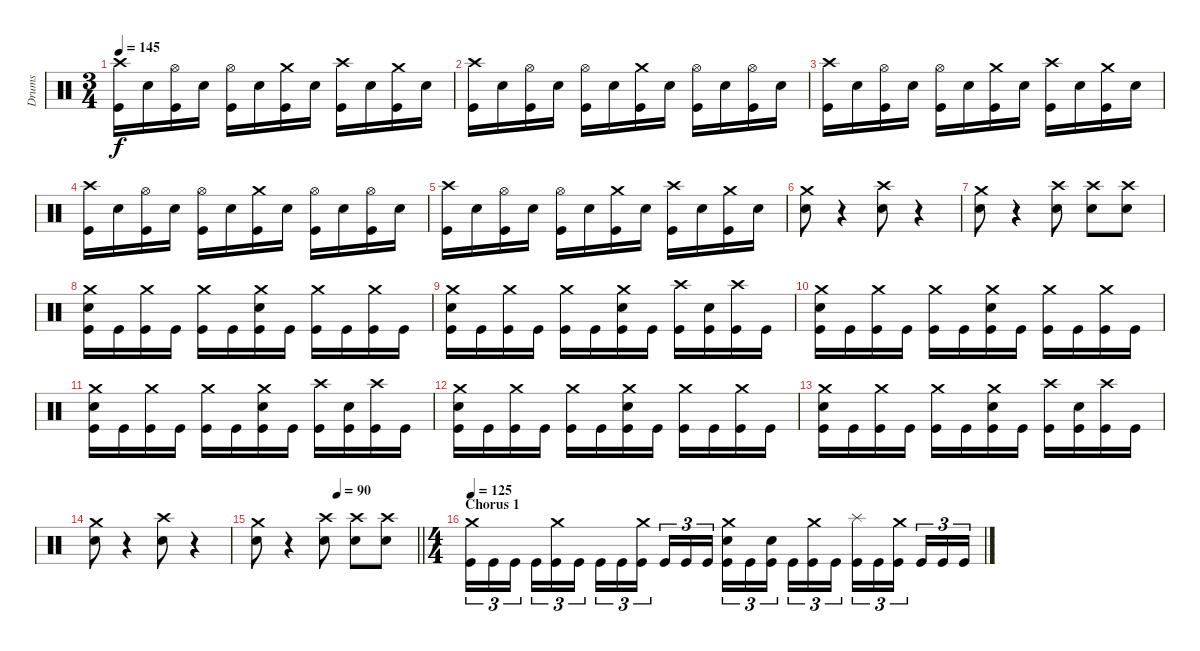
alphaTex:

\track ("Drums" "Drums") {instrument percussion}
\staff {score}
\articulation defaults
\ts (3 4)
\tempo 145
\clef neutral
\ks c
("Crash high (hit)" "Kick (hit)").16{dy f} "Snare (hit) 2".16 ("Hi-Hat (open)" "Kick (hit)").16 "Snare (hit) 2".16 ("Hi-Hat (open)" "Kick (hit)").16 "Snare (hit) 2".16 ("Crash medium (hit)" "Kick (hit)").16 "Snare (hit) 2".16 ("Crash high (hit)" "Kick (hit)").16 "Snare (hit) 2".16 ("Crash medium (hit)" "Kick (hit)").16 "Snare (hit) 2".16 |
("Crash high (hit)" "Kick (hit)").16 "Snare (hit) 2".16 ("Hi-Hat (open)" "Kick (hit)").16 "Snare (hit) 2".16 ("Hi-Hat (open)" "Kick (hit)").16 "Snare (hit) 2".16 ("Crash medium (hit)" "Kick (hit)").16 "Snare (hit) 2".16 ("Hi-Hat (open)" "Kick (hit)").16 "Snare (hit) 2".16 ("Hi-Hat (open)" "Kick (hit)").16 "Snare (hit) 2".16 |
("Crash high (hit)" "Kick (hit)").16 "Snare (hit) 2".16 ("Hi-Hat (open)" "Kick (hit)").16 "Snare (hit) 2".16 ("Hi-Hat (open)" "Kick (hit)").16 "Snare (hit) 2".16 ("Crash medium (hit)" "Kick (hit)").16 "Snare (hit) 2".16 ("Crash high (hit)" "Kick (hit)").16 "Snare (hit) 2".16 ("Crash medium (hit)" "Kick (hit)").16 "Snare (hit) 2".16 |
("Crash high (hit)" "Kick (hit)").16 "Snare (hit) 2".16 ("Hi-Hat (open)" "Kick (hit)").16 "Snare (hit) 2".16 ("Hi-Hat (open)" "Kick (hit)").16 "Snare (hit) 2".16 ("Crash medium (hit)" "Kick (hit)").16 "Snare (hit) 2".16 ("Hi-Hat (open)" "Kick (hit)").16 "Snare (hit) 2".16 ("Hi-Hat (open)" "Kick (hit)").16 "Snare (hit) 2".16 |
("Crash high (hit)" "Kick (hit)").16 "Snare (hit) 2".16 ("Hi-Hat (open)" "Kick (hit)").16 "Snare (hit) 2".16 ("Hi-Hat (open)" "Kick (hit)").16 "Snare (hit) 2".16 ("Crash medium (hit)" "Kick (hit)").16 "Snare (hit) 2".16 ("Crash high (hit)" "Kick (hit)").16 "Snare (hit) 2".16 ("Crash medium (hit)" "Kick (hit)").16 "Snare (hit) 2".16 |
("Crash medium (hit)" "Snare (hit) 2").8 r.4 ("Crash high (hit)" "Snare (hit) 2").8 r.4 |
("Crash medium (hit)" "Snare (hit) 2").8 r.4 ("Crash high (hit)" "Snare (hit) 2").8 ("Crash high (hit)" "Snare (hit) 2").8 ("Crash high (hit)" "Snare (hit) 2").8 |
("Crash medium (hit)" "Snare (hit) 2" "Kick (hit)").16 "Kick (hit)".16 ("Crash medium (hit)" "Kick (hit)").16 "Kick (hit)".16 ("Crash medium (hit)" "Kick (hit)").16 "Kick (hit)".16 ("Crash medium (hit)" "Snare (hit) 2" "Kick (hit)").16 "Kick (hit)".16 ("Crash medium (hit)" "Kick (hit)").16 "Kick (hit)".16 ("Crash medium (hit)" "Kick (hit)").16 "Kick (hit)".16 |
("Crash medium (hit)" "Snare (hit) 2" "Kick (hit)").16 "Kick (hit)".16 ("Crash medium (hit)" "Kick (hit)").16 "Kick (hit)".16 ("Crash medium (hit)" "Kick (hit)").16 "Kick (hit)".16 ("Crash medium (hit)" "Snare (hit) 2" "Kick (hit)").16 "Kick (hit)".16 ("Crash high (hit)" "Kick (hit)").16 ("Snare (hit) 2" "Kick (hit)").16 ("Crash high (hit)" "Kick (hit)").16 "Kick (hit)".16 |
("Crash medium (hit)" "Snare (hit) 2" "Kick (hit)").16 "Kick (hit)".16 ("Crash medium (hit)" "Kick (hit)").16 "Kick (hit)".16 ("Crash medium (hit)" "Kick (hit)").16 "Kick (hit)".16 ("Crash medium (hit)" "Snare (hit) 2" "Kick (hit)").16 "Kick (hit)".16 ("Crash medium (hit)" "Kick (hit)").16 "Kick (hit)".16 ("Crash medium (hit)" "Kick (hit)").16 "Kick (hit)".16 |
("Crash medium (hit)" "Snare (hit) 2" "Kick (hit)").16 "Kick (hit)".16 ("Crash medium (hit)" "Kick (hit)").16 "Kick (hit)".16 ("Crash medium (hit)" "Kick (hit)").16 "Kick (hit)".16 ("Crash medium (hit)" "Snare (hit) 2" "Kick (hit)").16 "Kick (hit)".16 ("Crash high (hit)" "Kick (hit)").16 ("Snare (hit) 2" "Kick (hit)").16 ("Crash high (hit)" "Kick (hit)").16 "Kick (hit)".16 |
("Crash medium (hit)" "Snare (hit) 2" "Kick (hit)").16 "Kick (hit)".16 ("Crash medium (hit)" "Kick (hit)").16 "Kick (hit)".16 ("Crash medium (hit)" "Kick (hit)").16 "Kick (hit)".16 ("Crash medium (hit)" "Snare (hit) 2" "Kick (hit)").16 "Kick (hit)".16 ("Crash medium (hit)" "Kick (hit)").16 "Kick (hit)".16 ("Crash medium (hit)" "Kick (hit)").16 "Kick (hit)".16 |
("Crash medium (hit)" "Snare (hit) 2" "Kick (hit)").16 "Kick (hit)".16 ("Crash medium (hit)" "Kick (hit)").16 "Kick (hit)".16 ("Crash medium (hit)" "Kick (hit)").16 "Kick (hit)".16 ("Crash medium (hit)" "Snare (hit) 2" "Kick (hit)").16 "Kick (hit)".16 ("Crash high (hit)" "Kick (hit)").16 ("Snare (hit) 2" "Kick (hit)").16 ("Crash high (hit)" "Kick (hit)").16 "Kick (hit)".16 |
("Crash medium (hit)" "Snare (hit) 2").8 r.4 ("Crash high (hit)" "Snare (hit) 2").8 r.4 |
\tempo (90 0.5)
\barLineRight lightlight
("Crash medium (hit)" "Snare (hit) 2").8 r.4 ("Crash high (hit)" "Snare (hit) 2").8 ("Crash high (hit)" "Snare (hit) 2").8 ("Crash high (hit)" "Snare (hit) 2").8 |
\ts (4 4)
\section ("" "Chorus 1")
\tempo 125
("Crash medium (hit)" "Kick (hit)").16{tu (3 2)} "Kick (hit)".16{tu (3 2)} "Kick (hit)".16{tu (3 2) beam splitsecondary} "Kick (hit)".16{tu (3 2)} ("Crash medium (hit)" "Kick (hit)").16{tu (3 2)} "Kick (hit)".16{tu (3 2)} "Kick (hit)".16{tu (3 2)} "Kick (hit)".16{tu (3 2)} ("Crash medium (hit)" "Kick (hit)").16{tu (3 2) beam splitsecondary} "Kick (hit)".16{tu (3 2)} "Kick (hit)".16{tu (3 2)} "Kick (hit)".16{tu (3 2)} ("Crash medium (hit)" "Snare (hit) 2" "Kick (hit)").16{tu (3 2)} "Kick (hit)".16{tu (3 2)} ("Snare (hit) 2" "Kick (hit)").16{tu (3 2) beam splitsecondary} "Kick (hit)".16{tu (3 2)} ("Crash medium (hit)" "Kick (hit)").16{tu (3 2)} "Kick (hit)".16{tu (3 2)} ("Splash (hit)" "Kick (hit)").16{tu (3 2)} "Kick (hit)".16{tu (3 2)} ("Crash medium (hit)" "Kick (hit)").16{tu (3 2) beam splitsecondary} "Kick (hit)".16{tu (3 2)} "Kick (hit)".16{tu (3 2)} "Kick (hit)".16{tu (3 2)}
